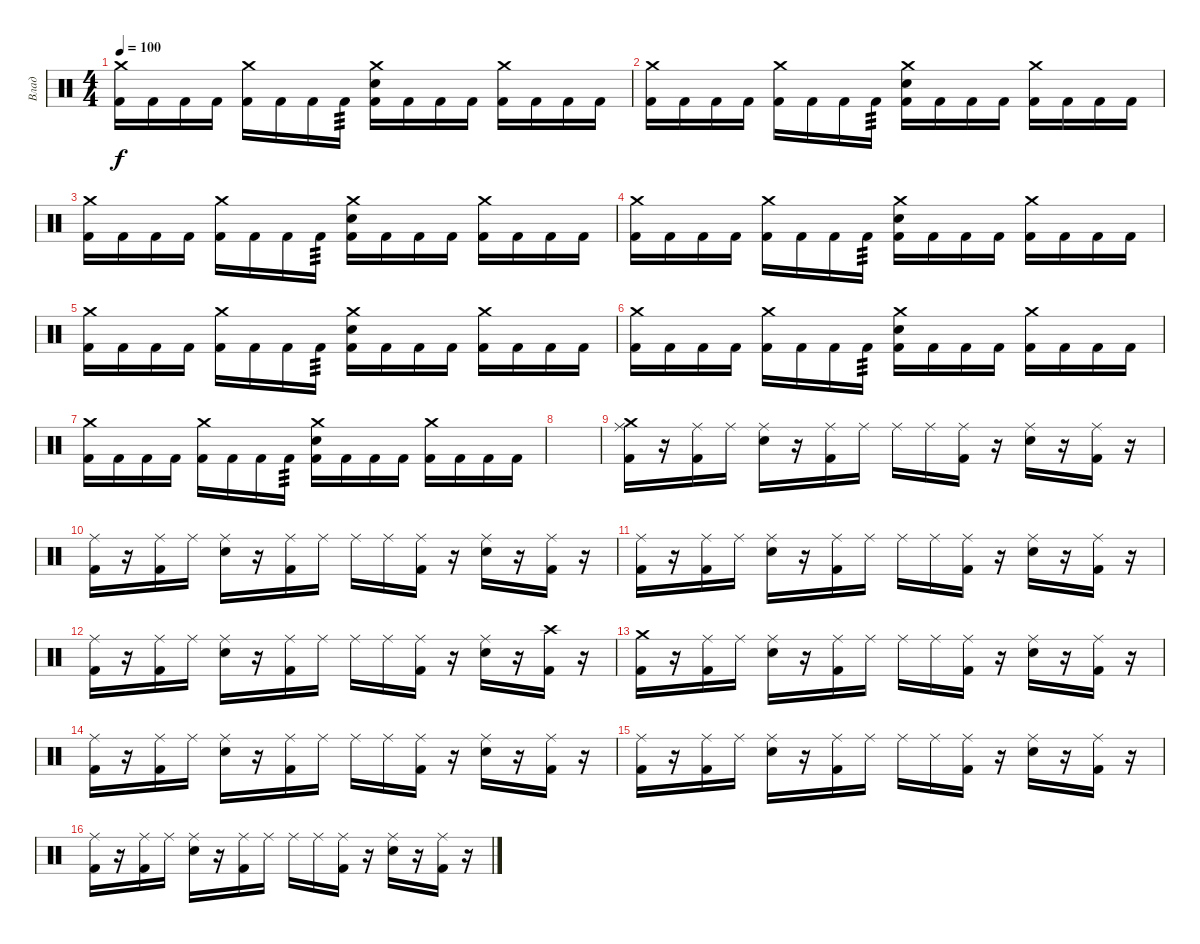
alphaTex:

\track ("Влад" "Влад") {instrument percussion}
\staff
\articulation defaults
\ts (4 4)
\tempo 100
\clef neutral
\ks c
("Crash medium (hit)" "Kick (hit) 2").16{dy f} "Kick (hit) 2".16 "Kick (hit) 2".16 "Kick (hit) 2".16 ("Crash medium (hit)" "Kick (hit) 2").16 "Kick (hit) 2".16 "Kick (hit) 2".16 "Kick (hit) 2".16{tp 3} ("Crash medium (hit)" "Snare (hit) 2" "Kick (hit) 2").16 "Kick (hit) 2".16 "Kick (hit) 2".16 "Kick (hit) 2".16 ("Crash medium (hit)" "Kick (hit) 2").16 "Kick (hit) 2".16 "Kick (hit) 2".16 "Kick (hit) 2".16 |
("Crash medium (hit)" "Kick (hit) 2").16 "Kick (hit) 2".16 "Kick (hit) 2".16 "Kick (hit) 2".16 ("Crash medium (hit)" "Kick (hit) 2").16 "Kick (hit) 2".16 "Kick (hit) 2".16 "Kick (hit) 2".16{tp 3} ("Crash medium (hit)" "Snare (hit) 2" "Kick (hit) 2").16 "Kick (hit) 2".16 "Kick (hit) 2".16 "Kick (hit) 2".16 ("Crash medium (hit)" "Kick (hit) 2").16 "Kick (hit) 2".16 "Kick (hit) 2".16 "Kick (hit) 2".16 |
("Crash medium (hit)" "Kick (hit) 2").16 "Kick (hit) 2".16 "Kick (hit) 2".16 "Kick (hit) 2".16 ("Crash medium (hit)" "Kick (hit) 2").16 "Kick (hit) 2".16 "Kick (hit) 2".16 "Kick (hit) 2".16{tp 3} ("Crash medium (hit)" "Snare (hit) 2" "Kick (hit) 2").16 "Kick (hit) 2".16 "Kick (hit) 2".16 "Kick (hit) 2".16 ("Crash medium (hit)" "Kick (hit) 2").16 "Kick (hit) 2".16 "Kick (hit) 2".16 "Kick (hit) 2".16 |
("Crash medium (hit)" "Kick (hit) 2").16 "Kick (hit) 2".16 "Kick (hit) 2".16 "Kick (hit) 2".16 ("Crash medium (hit)" "Kick (hit) 2").16 "Kick (hit) 2".16 "Kick (hit) 2".16 "Kick (hit) 2".16{tp 3} ("Crash medium (hit)" "Snare (hit) 2" "Kick (hit) 2").16 "Kick (hit) 2".16 "Kick (hit) 2".16 "Kick (hit) 2".16 ("Crash medium (hit)" "Kick (hit) 2").16 "Kick (hit) 2".16 "Kick (hit) 2".16 "Kick (hit) 2".16 |
("Crash medium (hit)" "Kick (hit) 2").16 "Kick (hit) 2".16 "Kick (hit) 2".16 "Kick (hit) 2".16 ("Crash medium (hit)" "Kick (hit) 2").16 "Kick (hit) 2".16 "Kick (hit) 2".16 "Kick (hit) 2".16{tp 3} ("Crash medium (hit)" "Snare (hit) 2" "Kick (hit) 2").16 "Kick (hit) 2".16 "Kick (hit) 2".16 "Kick (hit) 2".16 ("Crash medium (hit)" "Kick (hit) 2").16 "Kick (hit) 2".16 "Kick (hit) 2".16 "Kick (hit) 2".16 |
("Crash medium (hit)" "Kick (hit) 2").16 "Kick (hit) 2".16 "Kick (hit) 2".16 "Kick (hit) 2".16 ("Crash medium (hit)" "Kick (hit) 2").16 "Kick (hit) 2".16 "Kick (hit) 2".16 "Kick (hit) 2".16{tp 3} ("Crash medium (hit)" "Snare (hit) 2" "Kick (hit) 2").16 "Kick (hit) 2".16 "Kick (hit) 2".16 "Kick (hit) 2".16 ("Crash medium (hit)" "Kick (hit) 2").16 "Kick (hit) 2".16 "Kick (hit) 2".16 "Kick (hit) 2".16 |
("Crash medium (hit)" "Kick (hit) 2").16 "Kick (hit) 2".16 "Kick (hit) 2".16 "Kick (hit) 2".16 ("Crash medium (hit)" "Kick (hit) 2").16 "Kick (hit) 2".16 "Kick (hit) 2".16 "Kick (hit) 2".16{tp 3} ("Crash medium (hit)" "Snare (hit) 2" "Kick (hit) 2").16 "Kick (hit) 2".16 "Kick (hit) 2".16 "Kick (hit) 2".16 ("Crash medium (hit)" "Kick (hit) 2").16 "Kick (hit) 2".16 "Kick (hit) 2".16 "Kick (hit) 2".16 |
|
("Ride (middle)" "Crash medium (hit)" "Kick (hit) 2").16 r.16 ("Ride (middle)" "Kick (hit) 2").16 "Ride (middle)".16 ("Ride (middle)" "Snare (hit) 2").16 r.16 ("Ride (middle)" "Kick (hit) 2").16 "Ride (middle)".16 "Ride (middle)".16 "Ride (middle)".16 ("Ride (middle)" "Kick (hit) 2").16 r.16 ("Ride (middle)" "Snare (hit) 2").16 r.16 ("Ride (middle)" "Kick (hit) 2").16 r.16 |
("Ride (middle)" "Kick (hit) 2").16 r.16 ("Ride (middle)" "Kick (hit) 2").16 "Ride (middle)".16 ("Ride (middle)" "Snare (hit) 2").16 r.16 ("Ride (middle)" "Kick (hit) 2").16 "Ride (middle)".16 "Ride (middle)".16 "Ride (middle)".16 ("Ride (middle)" "Kick (hit) 2").16 r.16 ("Ride (middle)" "Snare (hit) 2").16 r.16 ("Ride (middle)" "Kick (hit) 2").16 r.16 |
("Ride (middle)" "Kick (hit) 2").16 r.16 ("Ride (middle)" "Kick (hit) 2").16 "Ride (middle)".16 ("Ride (middle)" "Snare (hit) 2").16 r.16 ("Ride (middle)" "Kick (hit) 2").16 "Ride (middle)".16 "Ride (middle)".16 "Ride (middle)".16 ("Ride (middle)" "Kick (hit) 2").16 r.16 ("Ride (middle)" "Snare (hit) 2").16 r.16 ("Ride (middle)" "Kick (hit) 2").16 r.16 |
("Ride (middle)" "Kick (hit) 2").16 r.16 ("Ride (middle)" "Kick (hit) 2").16 "Ride (middle)".16 ("Ride (middle)" "Snare (hit) 2").16 r.16 ("Ride (middle)" "Kick (hit) 2").16 "Ride (middle)".16 "Ride (middle)".16 "Ride (middle)".16 ("Ride (middle)" "Kick (hit) 2").16 r.16 ("Ride (middle)" "Snare (hit) 2").16 r.16 ("Crash high (hit)" "Kick (hit) 2").16 r.16 |
("Crash medium (hit)" "Kick (hit) 2").16 r.16 ("Ride (middle)" "Kick (hit) 2").16 "Ride (middle)".16 ("Ride (middle)" "Snare (hit) 2").16 r.16 ("Ride (middle)" "Kick (hit) 2").16 "Ride (middle)".16 "Ride (middle)".16 "Ride (middle)".16 ("Ride (middle)" "Kick (hit) 2").16 r.16 ("Ride (middle)" "Snare (hit) 2").16 r.16 ("Ride (middle)" "Kick (hit) 2").16 r.16 |
("Ride (middle)" "Kick (hit) 2").16 r.16 ("Ride (middle)" "Kick (hit) 2").16 "Ride (middle)".16 ("Ride (middle)" "Snare (hit) 2").16 r.16 ("Ride (middle)" "Kick (hit) 2").16 "Ride (middle)".16 "Ride (middle)".16 "Ride (middle)".16 ("Ride (middle)" "Kick (hit) 2").16 r.16 ("Ride (middle)" "Snare (hit) 2").16 r.16 ("Ride (middle)" "Kick (hit) 2").16 r.16 |
("Ride (middle)" "Kick (hit) 2").16 r.16 ("Ride (middle)" "Kick (hit) 2").16 "Ride (middle)".16 ("Ride (middle)" "Snare (hit) 2").16 r.16 ("Ride (middle)" "Kick (hit) 2").16 "Ride (middle)".16 "Ride (middle)".16 "Ride (middle)".16 ("Ride (middle)" "Kick (hit) 2").16 r.16 ("Ride (middle)" "Snare (hit) 2").16 r.16 ("Ride (middle)" "Kick (hit) 2").16 r.16 |
("Ride (middle)" "Kick (hit) 2").16 r.16 ("Ride (middle)" "Kick (hit) 2").16 "Ride (middle)".16 ("Ride (middle)" "Snare (hit) 2").16 r.16 ("Ride (middle)" "Kick (hit) 2").16 "Ride (middle)".16 "Ride (middle)".16 "Ride (middle)".16 ("Ride (middle)" "Kick (hit) 2").16 r.16 ("Ride (middle)" "Snare (hit) 2").16 r.16 ("Ride (middle)" "Kick (hit) 2").16 r.16
